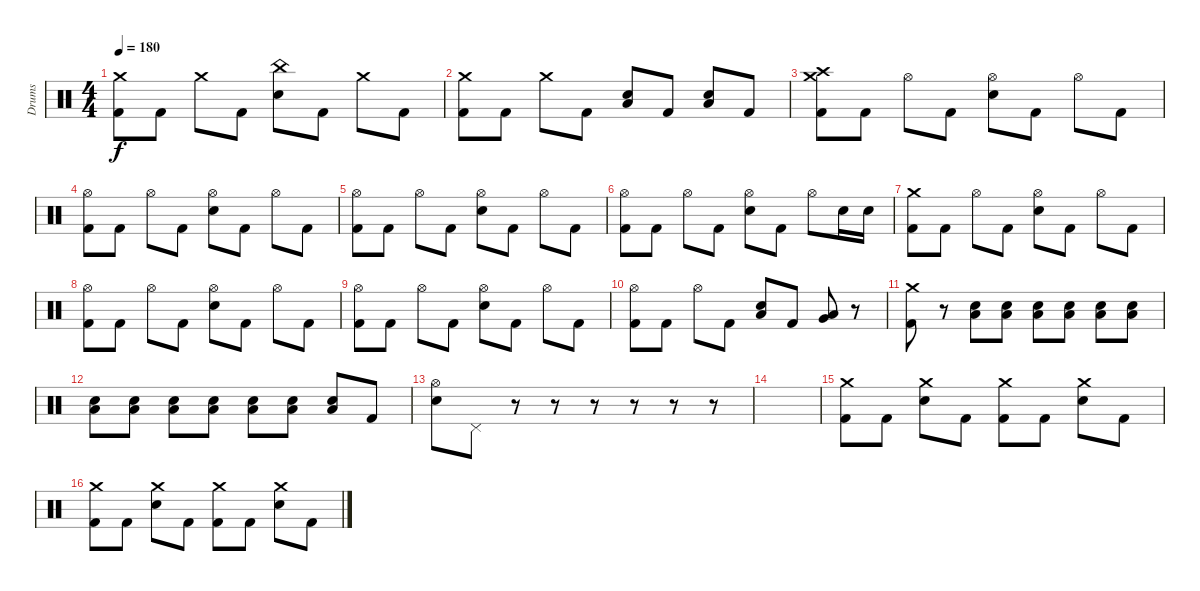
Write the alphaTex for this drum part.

\track ("Drums" "Drums") {instrument percussion}
\staff {score}
\articulation defaults
\ts (4 4)
\tempo 180
\clef neutral
\ks c
("Crash medium (hit)" "Kick (hit) 2").8{dy f} "Kick (hit) 2".8 "Crash medium (hit)".8 "Kick (hit) 2".8 ("China (hit)" "Electric Snare (hit)").8 "Kick (hit) 2".8 "Crash medium (hit)".8 "Kick (hit) 2".8 |
("Crash medium (hit)" "Kick (hit) 2").8 "Kick (hit) 2".8 "Crash medium (hit)".8 "Kick (hit) 2".8 ("Low Floor Tom (hit)" "Electric Snare (hit)").8 "Kick (hit) 2".8 ("Low Floor Tom (hit)" "Electric Snare (hit)").8 "Kick (hit) 2".8 |
("Crash medium (hit)" "Crash high (hit)" "Kick (hit) 2").8 "Kick (hit) 2".8 "Hi-Hat (open)".8 "Kick (hit) 2".8 ("Hi-Hat (open)" "Electric Snare (hit)").8 "Kick (hit) 2".8 "Hi-Hat (open)".8 "Kick (hit) 2".8 |
("Hi-Hat (open)" "Kick (hit) 2").8 "Kick (hit) 2".8 "Hi-Hat (open)".8 "Kick (hit) 2".8 ("Hi-Hat (open)" "Electric Snare (hit)").8 "Kick (hit) 2".8 "Hi-Hat (open)".8 "Kick (hit) 2".8 |
("Hi-Hat (open)" "Kick (hit) 2").8 "Kick (hit) 2".8 "Hi-Hat (open)".8 "Kick (hit) 2".8 ("Hi-Hat (open)" "Electric Snare (hit)").8 "Kick (hit) 2".8 "Hi-Hat (open)".8 "Kick (hit) 2".8 |
("Hi-Hat (open)" "Kick (hit) 2").8 "Kick (hit) 2".8 "Hi-Hat (open)".8 "Kick (hit) 2".8 ("Hi-Hat (open)" "Electric Snare (hit)").8 "Kick (hit) 2".8 "Hi-Hat (open)".8 "Electric Snare (hit)".16 "Electric Snare (hit)".16 |
("Crash medium (hit)" "Kick (hit) 2").8 "Kick (hit) 2".8 "Hi-Hat (open)".8 "Kick (hit) 2".8 ("Hi-Hat (open)" "Electric Snare (hit)").8 "Kick (hit) 2".8 "Hi-Hat (open)".8 "Kick (hit) 2".8 |
("Hi-Hat (open)" "Kick (hit) 2").8 "Kick (hit) 2".8 "Hi-Hat (open)".8 "Kick (hit) 2".8 ("Hi-Hat (open)" "Electric Snare (hit)").8 "Kick (hit) 2".8 "Hi-Hat (open)".8 "Kick (hit) 2".8 |
("Hi-Hat (open)" "Kick (hit) 2").8 "Kick (hit) 2".8 "Hi-Hat (open)".8 "Kick (hit) 2".8 ("Hi-Hat (open)" "Electric Snare (hit)").8 "Kick (hit) 2".8 "Hi-Hat (open)".8 "Kick (hit) 2".8 |
("Hi-Hat (open)" "Kick (hit) 2").8 "Kick (hit) 2".8 "Hi-Hat (open)".8 "Kick (hit) 2".8 ("Low Floor Tom (hit)" "Electric Snare (hit)").8 "Kick (hit) 2".8 ("Low Floor Tom (hit)" "Very Low Tom (hit)").8 r.8 |
("Crash medium (hit)" "Kick (hit) 2").8 r.8 ("Low Floor Tom (hit)" "Electric Snare (hit)").8{volume 5} ("Low Floor Tom (hit)" "Electric Snare (hit)").8{volume 13} ("Low Floor Tom (hit)" "Electric Snare (hit)").8 ("Low Floor Tom (hit)" "Electric Snare (hit)").8 ("Low Floor Tom (hit)" "Electric Snare (hit)").8 ("Low Floor Tom (hit)" "Electric Snare (hit)").8 |
("Low Floor Tom (hit)" "Electric Snare (hit)").8 ("Low Floor Tom (hit)" "Electric Snare (hit)").8 ("Low Floor Tom (hit)" "Electric Snare (hit)").8 ("Low Floor Tom (hit)" "Electric Snare (hit)").8 ("Low Floor Tom (hit)" "Electric Snare (hit)").8 ("Low Floor Tom (hit)" "Electric Snare (hit)").8 ("Low Floor Tom (hit)" "Electric Snare (hit)").8 "Kick (hit) 2".8 |
("Hi-Hat (open)" "Electric Snare (hit)").8 "Pedal Hi-Hat (hit)".8 r.8 r.8 r.8 r.8 r.8 r.8 |
|
("Crash medium (hit)" "Kick (hit) 2").8{volume 12} "Kick (hit) 2".8 ("Crash medium (hit)" "Electric Snare (hit)").8 "Kick (hit) 2".8 ("Crash medium (hit)" "Kick (hit) 2").8 "Kick (hit) 2".8 ("Crash medium (hit)" "Electric Snare (hit)").8 "Kick (hit) 2".8 |
("Crash medium (hit)" "Kick (hit) 2").8 "Kick (hit) 2".8 ("Crash medium (hit)" "Electric Snare (hit)").8 "Kick (hit) 2".8 ("Crash medium (hit)" "Kick (hit) 2").8 "Kick (hit) 2".8 ("Crash medium (hit)" "Electric Snare (hit)").8 "Kick (hit) 2".8
